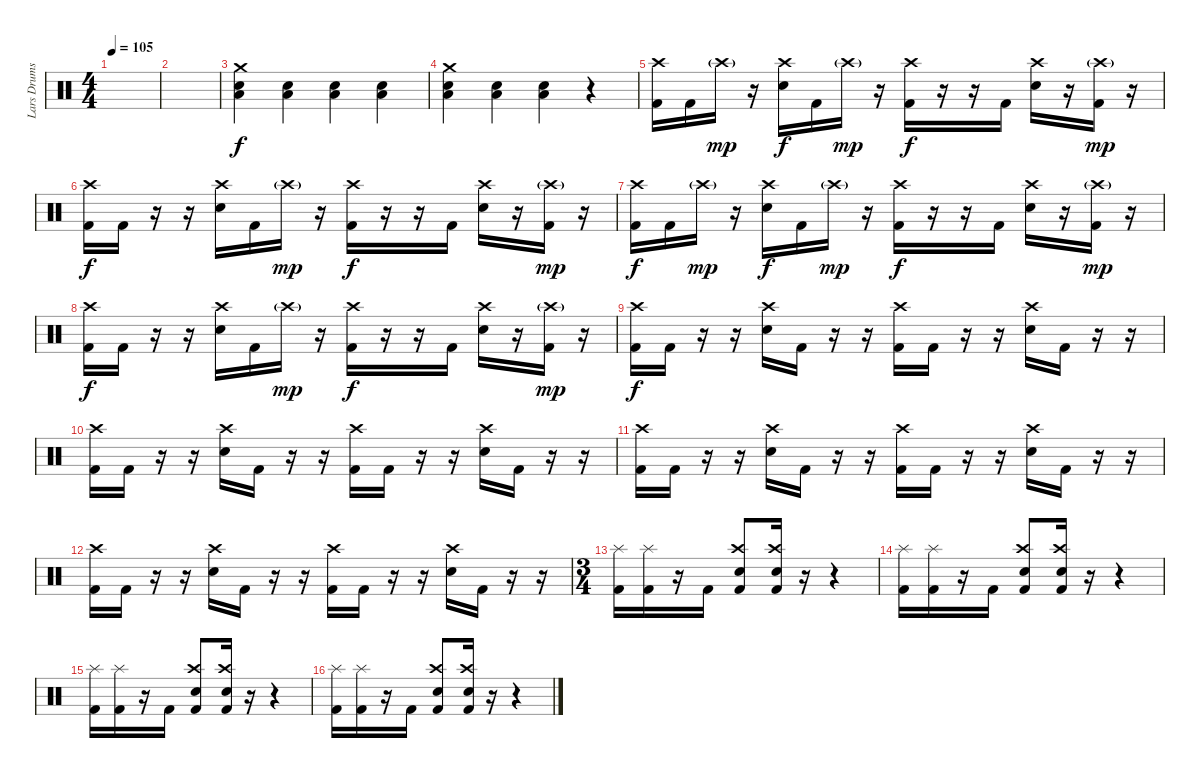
\track ("Lars Drums" "Lars Drums") {instrument percussion}
\staff {score}
\articulation defaults
\ts (4 4)
\tempo 105
\clef neutral
\ks c
|
|
("Crash medium (hit)" "Low Floor Tom (hit)" "Snare (hit) 2").4 ("Low Floor Tom (hit)" "Snare (hit) 2").4 ("Low Floor Tom (hit)" "Snare (hit) 2").4 ("Low Floor Tom (hit)" "Snare (hit) 2").4 |
("Crash medium (hit)" "Low Floor Tom (hit)" "Snare (hit) 2").4 ("Low Floor Tom (hit)" "Snare (hit) 2").4 ("Low Floor Tom (hit)" "Snare (hit) 2").4 r.4 |
("Crash high (hit)" "Kick (hit) 2").16 "Kick (hit) 2".16 "Crash high (hit)"{g}.16{dy mp} r.16 ("Crash high (hit)" "Snare (hit) 2").16{dy f} "Kick (hit) 2".16 "Crash high (hit)"{g}.16{dy mp} r.16 ("Crash high (hit)" "Kick (hit) 2").16{dy f} r.16 r.16 "Kick (hit) 2".16 ("Crash high (hit)" "Snare (hit) 2").16 r.16 ("Crash high (hit)"{g} "Kick (hit) 2").16{dy mp} r.16 |
("Crash high (hit)" "Kick (hit) 2").16{dy f} "Kick (hit) 2".16 r.16 r.16 ("Crash high (hit)" "Snare (hit) 2").16 "Kick (hit) 2".16 "Crash high (hit)"{g}.16{dy mp} r.16 ("Crash high (hit)" "Kick (hit) 2").16{dy f} r.16 r.16 "Kick (hit) 2".16 ("Crash high (hit)" "Snare (hit) 2").16 r.16 ("Crash high (hit)"{g} "Kick (hit) 2").16{dy mp} r.16 |
("Crash high (hit)" "Kick (hit) 2").16{dy f} "Kick (hit) 2".16 "Crash high (hit)"{g}.16{dy mp} r.16 ("Crash high (hit)" "Snare (hit) 2").16{dy f} "Kick (hit) 2".16 "Crash high (hit)"{g}.16{dy mp} r.16 ("Crash high (hit)" "Kick (hit) 2").16{dy f} r.16 r.16 "Kick (hit) 2".16 ("Crash high (hit)" "Snare (hit) 2").16 r.16 ("Crash high (hit)"{g} "Kick (hit) 2").16{dy mp} r.16 |
("Crash high (hit)" "Kick (hit) 2").16{dy f} "Kick (hit) 2".16 r.16 r.16 ("Crash high (hit)" "Snare (hit) 2").16 "Kick (hit) 2".16 "Crash high (hit)"{g}.16{dy mp} r.16 ("Crash high (hit)" "Kick (hit) 2").16{dy f} r.16 r.16 "Kick (hit) 2".16 ("Crash high (hit)" "Snare (hit) 2").16 r.16 ("Crash high (hit)"{g} "Kick (hit) 2").16{dy mp} r.16 |
("Crash high (hit)" "Kick (hit) 2").16{dy f} "Kick (hit) 2".16 r.16 r.16 ("Crash high (hit)" "Snare (hit) 2").16 "Kick (hit) 2".16 r.16 r.16 ("Crash high (hit)" "Kick (hit) 2").16 "Kick (hit) 2".16 r.16 r.16 ("Crash high (hit)" "Snare (hit) 2").16 "Kick (hit) 2".16 r.16 r.16 |
("Crash high (hit)" "Kick (hit) 2").16 "Kick (hit) 2".16 r.16 r.16 ("Crash high (hit)" "Snare (hit) 2").16 "Kick (hit) 2".16 r.16 r.16 ("Crash high (hit)" "Kick (hit) 2").16 "Kick (hit) 2".16 r.16 r.16 ("Crash high (hit)" "Snare (hit) 2").16 "Kick (hit) 2".16 r.16 r.16 |
("Crash high (hit)" "Kick (hit) 2").16 "Kick (hit) 2".16 r.16 r.16 ("Crash high (hit)" "Snare (hit) 2").16 "Kick (hit) 2".16 r.16 r.16 ("Crash high (hit)" "Kick (hit) 2").16 "Kick (hit) 2".16 r.16 r.16 ("Crash high (hit)" "Snare (hit) 2").16 "Kick (hit) 2".16 r.16 r.16 |
("Crash high (hit)" "Kick (hit) 2").16 "Kick (hit) 2".16 r.16 r.16 ("Crash high (hit)" "Snare (hit) 2").16 "Kick (hit) 2".16 r.16 r.16 ("Crash high (hit)" "Kick (hit) 2").16 "Kick (hit) 2".16 r.16 r.16 ("Crash high (hit)" "Snare (hit) 2").16 "Kick (hit) 2".16 r.16 r.16 |
\ts (3 4)
("Splash (hit)" "Kick (hit) 2").16 ("Splash (hit)" "Kick (hit) 2").16 r.16 "Kick (hit) 2".16 ("Crash high (hit)" "Snare (hit) 2" "Kick (hit) 2").8 ("Crash high (hit)" "Snare (hit) 2" "Kick (hit) 2").16 r.16 r.4 |
("Splash (hit)" "Kick (hit) 2").16 ("Splash (hit)" "Kick (hit) 2").16 r.16 "Kick (hit) 2".16 ("Crash high (hit)" "Snare (hit) 2" "Kick (hit) 2").8 ("Crash high (hit)" "Snare (hit) 2" "Kick (hit) 2").16 r.16 r.4 |
("Splash (hit)" "Kick (hit) 2").16 ("Splash (hit)" "Kick (hit) 2").16 r.16 "Kick (hit) 2".16 ("Crash high (hit)" "Snare (hit) 2" "Kick (hit) 2").8 ("Crash high (hit)" "Snare (hit) 2" "Kick (hit) 2").16 r.16 r.4 |
("Splash (hit)" "Kick (hit) 2").16 ("Splash (hit)" "Kick (hit) 2").16 r.16 "Kick (hit) 2".16 ("Crash high (hit)" "Snare (hit) 2" "Kick (hit) 2").8 ("Crash high (hit)" "Snare (hit) 2" "Kick (hit) 2").16 r.16 r.4
